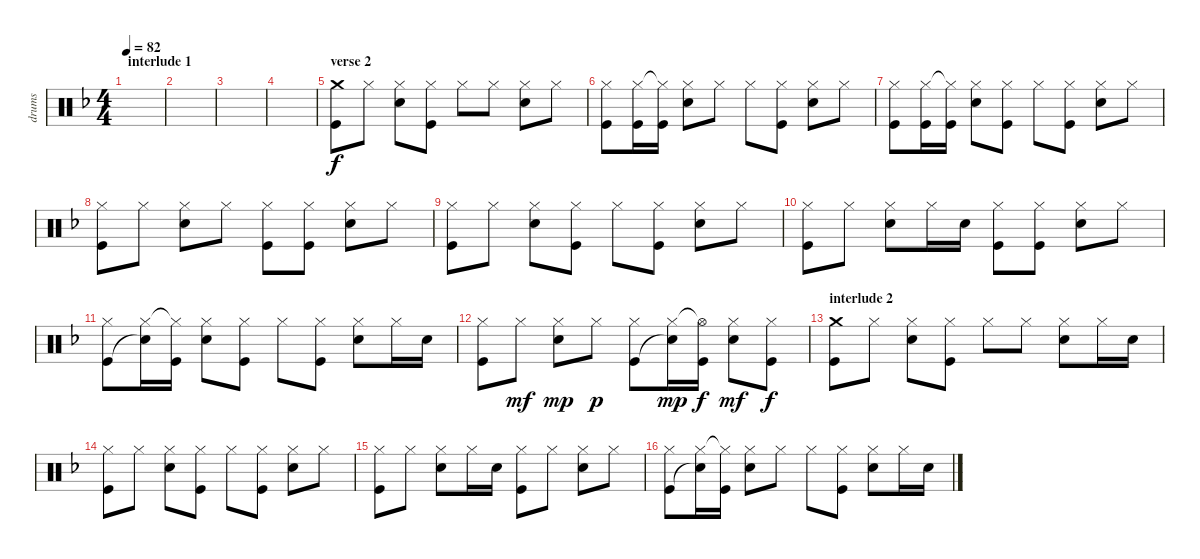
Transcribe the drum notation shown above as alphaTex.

\track ("drums" "drums") {instrument percussion}
\staff {score}
\articulation defaults
\ts (4 4)
\section ("" "interlude 1")
\tempo 82
\clef neutral
\ks f
|
|
|
|
\section ("" "verse 2")
("Crash medium (hit)" "Kick (hit)").8 "Hi-Hat (closed)".8 ("Hi-Hat (closed)" "Snare (hit) 2").8 ("Hi-Hat (closed)" "Kick (hit)").8 "Hi-Hat (closed)".8 "Hi-Hat (closed)".8 ("Hi-Hat (closed)" "Snare (hit) 2").8 "Hi-Hat (closed)".8 |
("Hi-Hat (closed)" "Kick (hit)").8 ("Hi-Hat (closed)" "Kick (hit)").16 ("Hi-Hat (closed)"{t} "Kick (hit)").16 ("Hi-Hat (closed)" "Snare (hit) 2").8 "Hi-Hat (closed)".8 "Hi-Hat (closed)".8 ("Hi-Hat (closed)" "Kick (hit)").8 ("Hi-Hat (closed)" "Snare (hit) 2").8 "Hi-Hat (closed)".8 |
("Hi-Hat (closed)" "Kick (hit)").8 ("Hi-Hat (closed)" "Kick (hit)").16 ("Hi-Hat (closed)"{t} "Kick (hit)").16 ("Hi-Hat (closed)" "Snare (hit) 2").8 ("Hi-Hat (closed)" "Kick (hit)").8 "Hi-Hat (closed)".8 ("Hi-Hat (closed)" "Kick (hit)").8 ("Hi-Hat (closed)" "Snare (hit) 2").8 "Hi-Hat (closed)".8 |
("Hi-Hat (closed)" "Kick (hit)").8 "Hi-Hat (closed)".8 ("Hi-Hat (closed)" "Snare (hit) 2").8 "Hi-Hat (closed)".8 ("Hi-Hat (closed)" "Kick (hit)").8 ("Hi-Hat (closed)" "Kick (hit)").8 ("Hi-Hat (closed)" "Snare (hit) 2").8 "Hi-Hat (closed)".8 |
("Hi-Hat (closed)" "Kick (hit)").8 "Hi-Hat (closed)".8 ("Hi-Hat (closed)" "Snare (hit) 2").8 ("Hi-Hat (closed)" "Kick (hit)").8 "Hi-Hat (closed)".8 ("Hi-Hat (closed)" "Kick (hit)").8 ("Hi-Hat (closed)" "Snare (hit) 2").8 "Hi-Hat (closed)".8 |
("Hi-Hat (closed)" "Kick (hit)").8 "Hi-Hat (closed)".8 ("Hi-Hat (closed)" "Snare (hit) 2").8 "Hi-Hat (closed)".16 "Snare (hit) 2".16 ("Hi-Hat (closed)" "Kick (hit)").8 ("Hi-Hat (closed)" "Kick (hit)").8 ("Hi-Hat (closed)" "Snare (hit) 2").8 "Hi-Hat (closed)".8 |
("Hi-Hat (closed)" "Kick (hit)").8 ("Hi-Hat (closed)" "Snare (hit)"{t}).16 ("Hi-Hat (closed)"{t} "Kick (hit)").16 ("Hi-Hat (closed)" "Snare (hit) 2").8 ("Hi-Hat (closed)" "Kick (hit)").8 "Hi-Hat (closed)".8 ("Hi-Hat (closed)" "Kick (hit)").8 ("Hi-Hat (closed)" "Snare (hit) 2").8 "Hi-Hat (closed)".16 "Snare (hit) 2".16 |
("Hi-Hat (closed)" "Kick (hit)").8 "Hi-Hat (closed)".8{dy mf} ("Hi-Hat (closed)" "Snare (hit) 2").8{dy mp} "Hi-Hat (closed)".8{dy p} ("Hi-Hat (closed)" "Kick (hit)").8 ("Hi-Hat (closed)" "Snare (hit)"{t}).16{dy mp} ("Hi-Hat (open)"{t} "Kick (hit)").16{dy f} ("Hi-Hat (closed)" "Snare (hit) 2").8{dy mf} ("Hi-Hat (closed)" "Kick (hit)").8{dy f} |
\section ("" "interlude 2")
("Crash medium (hit)" "Kick (hit)").8 "Hi-Hat (closed)".8 ("Hi-Hat (closed)" "Snare (hit) 2").8 ("Hi-Hat (closed)" "Kick (hit)").8 "Hi-Hat (closed)".8 "Hi-Hat (closed)".8 ("Hi-Hat (closed)" "Snare (hit) 2").8 "Hi-Hat (closed)".16 "Snare (hit) 2".16 |
("Hi-Hat (closed)" "Kick (hit)").8 "Hi-Hat (closed)".8 ("Hi-Hat (closed)" "Snare (hit) 2").8 ("Hi-Hat (closed)" "Kick (hit)").8 "Hi-Hat (closed)".8 ("Hi-Hat (closed)" "Kick (hit)").8 ("Hi-Hat (closed)" "Snare (hit) 2").8 "Hi-Hat (closed)".8 |
("Hi-Hat (closed)" "Kick (hit)").8 "Hi-Hat (closed)".8 ("Hi-Hat (closed)" "Snare (hit) 2").8 "Hi-Hat (closed)".16 "Snare (hit) 2".16 ("Hi-Hat (closed)" "Kick (hit)").8 "Hi-Hat (closed)".8 ("Hi-Hat (closed)" "Snare (hit) 2").8 "Hi-Hat (closed)".8 |
("Hi-Hat (closed)" "Kick (hit)").8 ("Hi-Hat (closed)" "Snare (hit)"{t}).16 ("Hi-Hat (closed)"{t} "Kick (hit)").16 ("Hi-Hat (closed)" "Snare (hit) 2").8 "Hi-Hat (closed)".8 "Hi-Hat (closed)".8 ("Hi-Hat (closed)" "Kick (hit)").8 ("Hi-Hat (closed)" "Snare (hit) 2").8 "Hi-Hat (closed)".16 "Snare (hit) 2".16
